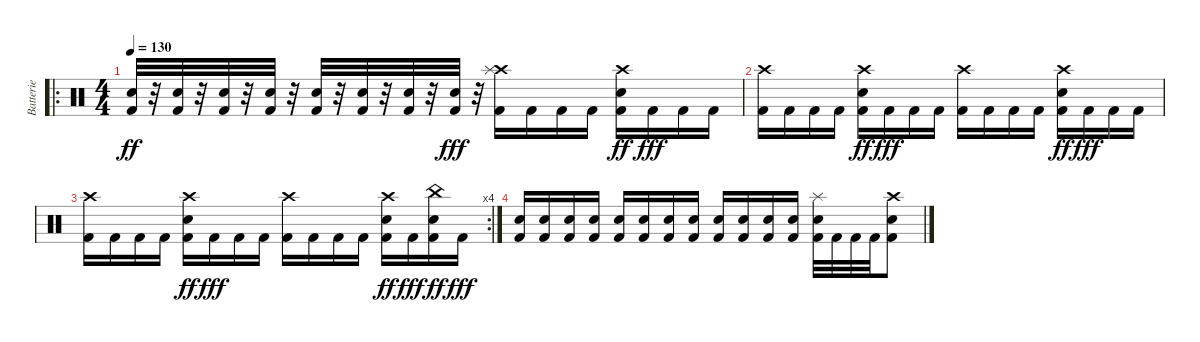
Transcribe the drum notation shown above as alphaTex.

\track ("Batterie" "Batterie") {instrument percussion}
\staff {score}
\articulation defaults
\ro
\ts (4 4)
\tempo 130
\clef neutral
\ks c
("Kick (hit) 2" "Snare (hit) 2").32{dy ff} r.32 ("Kick (hit) 2" "Snare (hit) 2").32 r.32 ("Kick (hit) 2" "Snare (hit) 2").32 r.32 ("Kick (hit) 2" "Snare (hit) 2").32 r.32 ("Kick (hit) 2" "Snare (hit) 2").32 r.32 ("Kick (hit) 2" "Snare (hit) 2").32 r.32 ("Kick (hit) 2" "Snare (hit) 2").32 r.32 ("Kick (hit) 2" "Snare (hit) 2").32{dy fff} r.32 ("Kick (hit) 2" "Crash high (hit)" "Splash (hit)").16 "Kick (hit) 2".16 "Kick (hit) 2".16 "Kick (hit) 2".16 ("Kick (hit) 2" "Crash high (hit)" "Snare (hit) 2").16{dy ff} "Kick (hit) 2".16{dy fff} "Kick (hit) 2".16 "Kick (hit) 2".16 |
("Kick (hit) 2" "Crash high (hit)").16 "Kick (hit) 2".16 "Kick (hit) 2".16 "Kick (hit) 2".16 ("Kick (hit) 2" "Crash high (hit)" "Snare (hit) 2").16{dy ff} "Kick (hit) 2".16{dy fff} "Kick (hit) 2".16 "Kick (hit) 2".16 ("Kick (hit) 2" "Crash high (hit)").16 "Kick (hit) 2".16 "Kick (hit) 2".16 "Kick (hit) 2".16 ("Kick (hit) 2" "Crash high (hit)" "Snare (hit) 2").16{dy ff} "Kick (hit) 2".16{dy fff} "Kick (hit) 2".16 "Kick (hit) 2".16 |
\rc 4
("Kick (hit) 2" "Crash high (hit)").16 "Kick (hit) 2".16 "Kick (hit) 2".16 "Kick (hit) 2".16 ("Kick (hit) 2" "Crash high (hit)" "Snare (hit) 2").16{dy ff} "Kick (hit) 2".16{dy fff} "Kick (hit) 2".16 "Kick (hit) 2".16 ("Kick (hit) 2" "Crash high (hit)").16 "Kick (hit) 2".16 "Kick (hit) 2".16 "Kick (hit) 2".16 ("Kick (hit) 2" "Crash high (hit)" "Snare (hit) 2").16{dy ff} "Kick (hit) 2".16{dy fff} ("Kick (hit) 2" "China (hit)" "Snare (hit) 2").16{dy ff} "Kick (hit) 2".16{dy fff} |
("Snare (hit) 2" "Kick (hit) 2").16 ("Snare (hit) 2" "Kick (hit) 2").16 ("Snare (hit) 2" "Kick (hit) 2").16 ("Snare (hit) 2" "Kick (hit) 2").16 ("Snare (hit) 2" "Kick (hit) 2").16 ("Snare (hit) 2" "Kick (hit) 2").16 ("Snare (hit) 2" "Kick (hit) 2").16 ("Snare (hit) 2" "Kick (hit) 2").16 ("Snare (hit) 2" "Kick (hit) 2").16 ("Snare (hit) 2" "Kick (hit) 2").16 ("Snare (hit) 2" "Kick (hit) 2").16 ("Snare (hit) 2" "Kick (hit) 2").16 ("Snare (hit) 2" "Splash (hit)" "Kick (hit) 2").32 "Kick (hit) 2".32 "Kick (hit) 2".32 "Kick (hit) 2".32 ("Snare (hit) 2" "Kick (hit) 2" "Crash high (hit)").8
